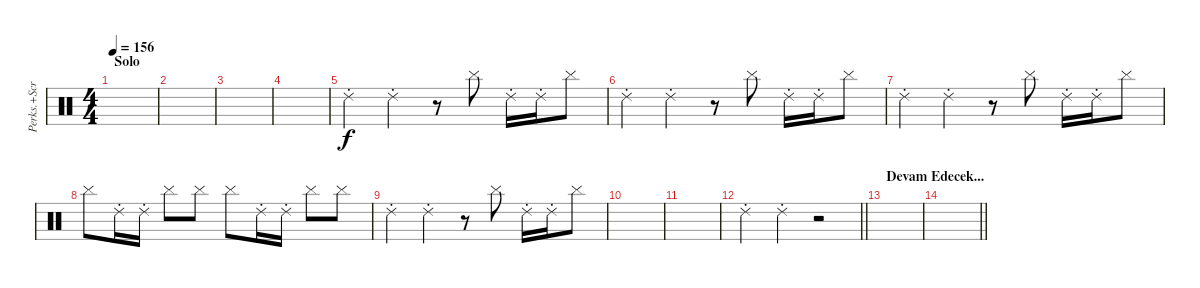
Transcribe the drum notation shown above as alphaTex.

\track ("Perks.+Scratch" "Perks.+Scr") {instrument percussion}
\staff {score}
\articulation defaults
\ts (4 4)
\section ("" "Solo")
\tempo 156
\clef neutral
\ks c
|
|
|
|
"Ride (choke) 2".4{dy f} "Ride (choke) 2".4 r.8 "Cymbal (hit)".8 "Ride (choke) 2".16 "Ride (choke) 2".16 "Cymbal (hit)".8 |
"Ride (choke) 2".4 "Ride (choke) 2".4 r.8 "Cymbal (hit)".8 "Ride (choke) 2".16 "Ride (choke) 2".16 "Cymbal (hit)".8 |
"Ride (choke) 2".4 "Ride (choke) 2".4 r.8 "Cymbal (hit)".8 "Ride (choke) 2".16 "Ride (choke) 2".16 "Cymbal (hit)".8 |
"Cymbal (hit)".8 "Ride (choke) 2".16 "Ride (choke) 2".16 "Cymbal (hit)".8 "Cymbal (hit)".8 "Cymbal (hit)".8 "Ride (choke) 2".16 "Ride (choke) 2".16 "Cymbal (hit)".8 "Cymbal (hit)".8 |
"Ride (choke) 2".4 "Ride (choke) 2".4 r.8 "Cymbal (hit)".8 "Ride (choke) 2".16 "Ride (choke) 2".16 "Cymbal (hit)".8 |
|
|
\barLineRight lightlight "Ride (choke) 2".4 "Ride (choke) 2".4
r.2 |
\section ("" "Devam Edecek...")
|
\barLineRight lightlight
